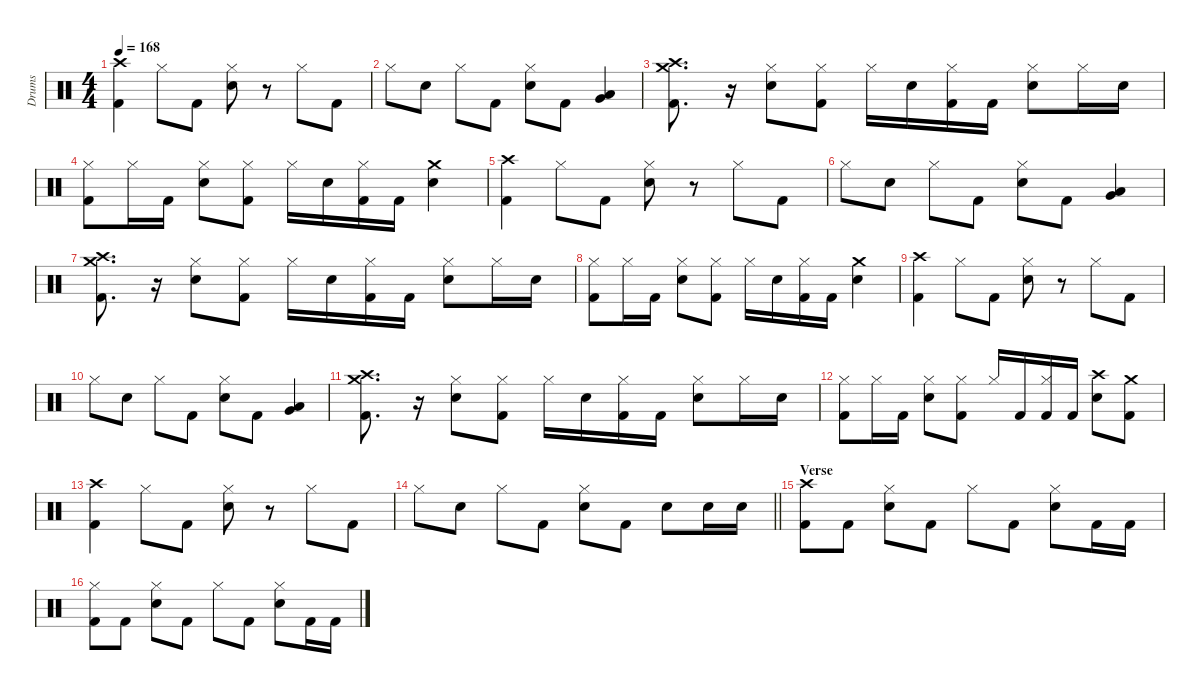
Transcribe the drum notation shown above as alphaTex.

\defaultSystemsLayout 4
\hideDynamics
\bracketExtendMode nobrackets
\firstSystemTrackNameMode fullname
\otherSystemsTrackNameOrientation horizontal
\track ("Drums" "drm.") {instrument percussion}
\staff {score}
\articulation defaults
\ts (4 4)
\tempo 168
\clef neutral
\ks c
("Crash high (hit)" "Kick (hit) 2").4{dy f beam Down} "Hi-Hat (closed)".8{beam Down} "Kick (hit) 2".8{beam Down} ("Hi-Hat (closed)" "Snare (hit) 2").8{beam Down} r.8{beam Down} "Hi-Hat (closed)".8{beam Down} "Kick (hit) 2".8{beam Down} |
"Hi-Hat (closed)".8{beam Down} "Snare (hit) 2".8{beam Down} "Hi-Hat (closed)".8{beam Down} "Kick (hit) 2".8{beam Down} ("Hi-Hat (closed)" "Snare (hit) 2").8{beam Down} "Kick (hit) 2".8{beam Down} ("Low Floor Tom (hit)" "Very Low Tom (hit)").4{beam Up} |
("Crash high (hit)" "Crash medium (hit)" "Kick (hit) 2").8{d beam Down} r.16{beam Down} ("Hi-Hat (closed)" "Snare (hit) 2").8{beam Down} ("Hi-Hat (closed)" "Kick (hit) 2").8{beam Down} "Hi-Hat (closed)".16{beam Down} "Snare (hit) 2".16{dy p beam Down} ("Hi-Hat (closed)" "Kick (hit) 2").16{dy f beam Down} "Kick (hit) 2".16{beam Down} ("Hi-Hat (closed)" "Snare (hit) 2").8{beam Down} "Hi-Hat (closed)".16{beam Down} "Snare (hit) 2".16{beam Down} |
("Hi-Hat (closed)" "Kick (hit) 2").8{dy ff beam Down} "Hi-Hat (closed)".16{beam Down} "Kick (hit) 2".16{dy f beam Down} ("Hi-Hat (closed)" "Snare (hit) 2").8{beam Down} ("Hi-Hat (closed)" "Kick (hit) 2").8{beam Down} "Hi-Hat (closed)".16{beam Down} "Snare (hit) 2".16{dy p beam Down} ("Hi-Hat (closed)" "Kick (hit) 2").16{dy f beam Down} "Kick (hit) 2".16{beam Down} ("Crash medium (hit)" "Snare (hit) 2").4{beam Down} |
("Crash high (hit)" "Kick (hit) 2").4{beam Down} "Hi-Hat (closed)".8{beam Down} "Kick (hit) 2".8{beam Down} ("Hi-Hat (closed)" "Snare (hit) 2").8{beam Down} r.8{beam Down} "Hi-Hat (closed)".8{beam Down} "Kick (hit) 2".8{beam Down} |
"Hi-Hat (closed)".8{beam Down} "Snare (hit) 2".8{beam Down} "Hi-Hat (closed)".8{beam Down} "Kick (hit) 2".8{beam Down} ("Hi-Hat (closed)" "Snare (hit) 2").8{beam Down} "Kick (hit) 2".8{beam Down} ("Low Floor Tom (hit)" "Very Low Tom (hit)").4{beam Up} |
("Crash high (hit)" "Crash medium (hit)" "Kick (hit) 2").8{d beam Down} r.16{beam Down} ("Hi-Hat (closed)" "Snare (hit) 2").8{beam Down} ("Hi-Hat (closed)" "Kick (hit) 2").8{beam Down} "Hi-Hat (closed)".16{beam Down} "Snare (hit) 2".16{dy p beam Down} ("Hi-Hat (closed)" "Kick (hit) 2").16{dy f beam Down} "Kick (hit) 2".16{beam Down} ("Hi-Hat (closed)" "Snare (hit) 2").8{beam Down} "Hi-Hat (closed)".16{beam Down} "Snare (hit) 2".16{beam Down} |
("Hi-Hat (closed)" "Kick (hit) 2").8{dy ff beam Down} "Hi-Hat (closed)".16{beam Down} "Kick (hit) 2".16{dy f beam Down} ("Hi-Hat (closed)" "Snare (hit) 2").8{beam Down} ("Hi-Hat (closed)" "Kick (hit) 2").8{beam Down} "Hi-Hat (closed)".16{beam Down} "Snare (hit) 2".16{dy p beam Down} ("Hi-Hat (closed)" "Kick (hit) 2").16{dy f beam Down} "Kick (hit) 2".16{beam Down} ("Crash medium (hit)" "Snare (hit) 2").4{beam Down} |
("Crash high (hit)" "Kick (hit) 2").4{beam Down} "Hi-Hat (closed)".8{beam Down} "Kick (hit) 2".8{beam Down} ("Hi-Hat (closed)" "Snare (hit) 2").8{beam Down} r.8{beam Down} "Hi-Hat (closed)".8{beam Down} "Kick (hit) 2".8{beam Down} |
"Hi-Hat (closed)".8{beam Down} "Snare (hit) 2".8{beam Down} "Hi-Hat (closed)".8{beam Down} "Kick (hit) 2".8{beam Down} ("Hi-Hat (closed)" "Snare (hit) 2").8{beam Down} "Kick (hit) 2".8{beam Down} ("Low Floor Tom (hit)" "Very Low Tom (hit)").4{beam Up} |
("Crash high (hit)" "Crash medium (hit)" "Kick (hit) 2").8{d beam Down} r.16{beam Down} ("Hi-Hat (closed)" "Snare (hit) 2").8{beam Down} ("Hi-Hat (closed)" "Kick (hit) 2").8{beam Down} "Hi-Hat (closed)".16{beam Down} "Snare (hit) 2".16{dy p beam Down} ("Hi-Hat (closed)" "Kick (hit) 2").16{dy f beam Down} "Kick (hit) 2".16{beam Down} ("Hi-Hat (closed)" "Snare (hit) 2").8{beam Down} "Hi-Hat (closed)".16{beam Down} "Snare (hit) 2".16{beam Down} |
("Hi-Hat (closed)" "Kick (hit) 2").8{dy ff beam Down} "Hi-Hat (closed)".16{beam Down} "Kick (hit) 2".16{dy f beam Down} ("Hi-Hat (closed)" "Snare (hit) 2").8{beam Down} ("Hi-Hat (closed)" "Kick (hit) 2").8{beam Down} "Hi-Hat (closed)".16{beam Up} "Kick (hit) 2".16{beam Up} ("Hi-Hat (closed)" "Kick (hit) 2").16{beam Up} "Kick (hit) 2".16{beam Up} ("Crash high (hit)" "Snare (hit) 2").8{beam Down} ("Crash medium (hit)" "Kick (hit) 2").8{beam Down} |
("Crash high (hit)" "Kick (hit) 2").4{beam Down} "Hi-Hat (closed)".8{beam Down} "Kick (hit) 2".8{beam Down} ("Hi-Hat (closed)" "Snare (hit) 2").8{beam Down} r.8{beam Down} "Hi-Hat (closed)".8{beam Down} "Kick (hit) 2".8{beam Down} |
\barLineRight lightlight "Hi-Hat (closed)".8{beam Down} "Snare (hit) 2".8{beam Down} "Hi-Hat (closed)".8{beam Down} "Kick (hit) 2".8{beam Down}
("Hi-Hat (closed)" "Snare (hit) 2").8{beam Down} "Kick (hit) 2".8{beam Down} "Snare (hit) 2".8{beam Down} "Snare (hit) 2".16{beam Down} "Snare (hit) 2".16{beam Down} |
\section ("" "Verse")
("Crash high (hit)" "Kick (hit) 2").8{beam Down} "Kick (hit) 2".8{beam Down} ("Hi-Hat (closed)" "Snare (hit) 2").8{beam Down} "Kick (hit) 2".8{beam Down} "Hi-Hat (closed)".8{beam Down} "Kick (hit) 2".8{beam Down} ("Hi-Hat (closed)" "Snare (hit) 2").8{beam Down} "Kick (hit) 2".16{beam Down} "Kick (hit) 2".16{beam Down} |
("Hi-Hat (closed)" "Kick (hit) 2").8{beam Down} "Kick (hit) 2".8{beam Down} ("Hi-Hat (closed)" "Snare (hit) 2").8{beam Down} "Kick (hit) 2".8{beam Down} "Hi-Hat (closed)".8{beam Down} "Kick (hit) 2".8{beam Down} ("Hi-Hat (closed)" "Snare (hit) 2").8{beam Down} "Kick (hit) 2".16{beam Down} "Kick (hit) 2".16{beam Down}
